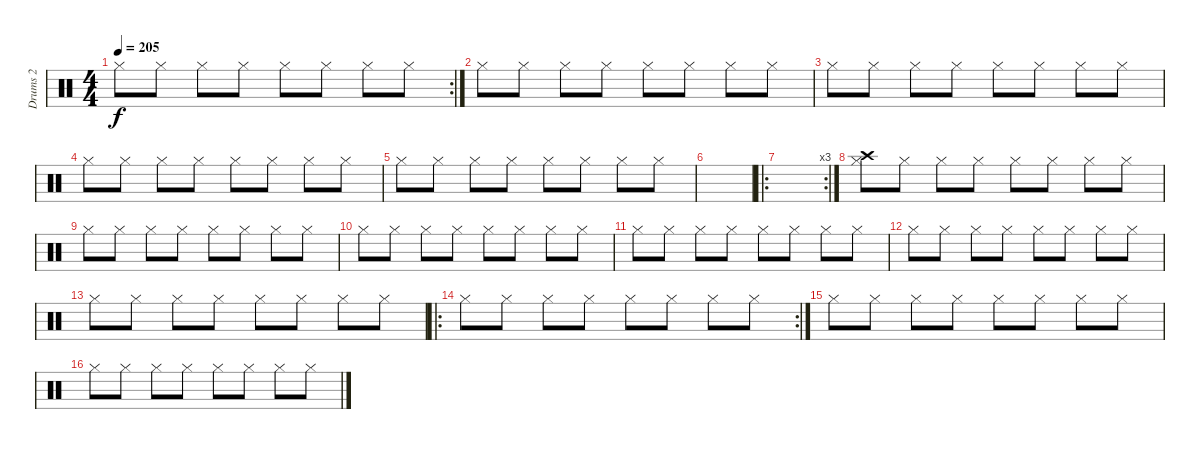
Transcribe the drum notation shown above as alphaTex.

\track ("Drums 2" "Drums 2") {instrument percussion}
\staff {score}
\articulation defaults
\rc 2
\ts (4 4)
\tempo 205
\clef neutral
\ks c "Hi-Hat (closed)".8{dy f} "Hi-Hat (closed)".8 "Hi-Hat (closed)".8 "Hi-Hat (closed)".8 "Hi-Hat (closed)".8 "Hi-Hat (closed)".8 "Hi-Hat (closed)".8 "Hi-Hat (closed)".8
|
"Hi-Hat (closed)".8 "Hi-Hat (closed)".8 "Hi-Hat (closed)".8 "Hi-Hat (closed)".8 "Hi-Hat (closed)".8 "Hi-Hat (closed)".8 "Hi-Hat (closed)".8 "Hi-Hat (closed)".8 |
"Hi-Hat (closed)".8 "Hi-Hat (closed)".8 "Hi-Hat (closed)".8 "Hi-Hat (closed)".8 "Hi-Hat (closed)".8 "Hi-Hat (closed)".8 "Hi-Hat (closed)".8 "Hi-Hat (closed)".8 |
"Hi-Hat (closed)".8 "Hi-Hat (closed)".8 "Hi-Hat (closed)".8 "Hi-Hat (closed)".8 "Hi-Hat (closed)".8 "Hi-Hat (closed)".8 "Hi-Hat (closed)".8 "Hi-Hat (closed)".8 |
"Hi-Hat (closed)".8 "Hi-Hat (closed)".8 "Hi-Hat (closed)".8 "Hi-Hat (closed)".8 "Hi-Hat (closed)".8 "Hi-Hat (closed)".8 "Hi-Hat (closed)".8 "Hi-Hat (closed)".8 |
|
\ro
\rc 3
|
("Crash high (hit)" "Hi-Hat (closed)").8 "Hi-Hat (closed)".8 "Hi-Hat (closed)".8 "Hi-Hat (closed)".8 "Hi-Hat (closed)".8 "Hi-Hat (closed)".8 "Hi-Hat (closed)".8 "Hi-Hat (closed)".8 |
"Hi-Hat (closed)".8 "Hi-Hat (closed)".8 "Hi-Hat (closed)".8 "Hi-Hat (closed)".8 "Hi-Hat (closed)".8 "Hi-Hat (closed)".8 "Hi-Hat (closed)".8 "Hi-Hat (closed)".8 |
"Hi-Hat (closed)".8 "Hi-Hat (closed)".8 "Hi-Hat (closed)".8 "Hi-Hat (closed)".8 "Hi-Hat (closed)".8 "Hi-Hat (closed)".8 "Hi-Hat (closed)".8 "Hi-Hat (closed)".8 |
"Hi-Hat (closed)".8 "Hi-Hat (closed)".8 "Hi-Hat (closed)".8 "Hi-Hat (closed)".8 "Hi-Hat (closed)".8 "Hi-Hat (closed)".8 "Hi-Hat (closed)".8 "Hi-Hat (closed)".8 |
"Hi-Hat (closed)".8 "Hi-Hat (closed)".8 "Hi-Hat (closed)".8 "Hi-Hat (closed)".8 "Hi-Hat (closed)".8 "Hi-Hat (closed)".8 "Hi-Hat (closed)".8 "Hi-Hat (closed)".8 |
"Hi-Hat (closed)".8 "Hi-Hat (closed)".8 "Hi-Hat (closed)".8 "Hi-Hat (closed)".8 "Hi-Hat (closed)".8 "Hi-Hat (closed)".8 "Hi-Hat (closed)".8 "Hi-Hat (closed)".8 |
\ro
\rc 2 "Hi-Hat (closed)".8 "Hi-Hat (closed)".8 "Hi-Hat (closed)".8 "Hi-Hat (closed)".8 "Hi-Hat (closed)".8 "Hi-Hat (closed)".8 "Hi-Hat (closed)".8 "Hi-Hat (closed)".8
|
"Hi-Hat (closed)".8 "Hi-Hat (closed)".8 "Hi-Hat (closed)".8 "Hi-Hat (closed)".8 "Hi-Hat (closed)".8 "Hi-Hat (closed)".8 "Hi-Hat (closed)".8 "Hi-Hat (closed)".8 |
"Hi-Hat (closed)".8 "Hi-Hat (closed)".8 "Hi-Hat (closed)".8 "Hi-Hat (closed)".8 "Hi-Hat (closed)".8 "Hi-Hat (closed)".8 "Hi-Hat (closed)".8 "Hi-Hat (closed)".8
